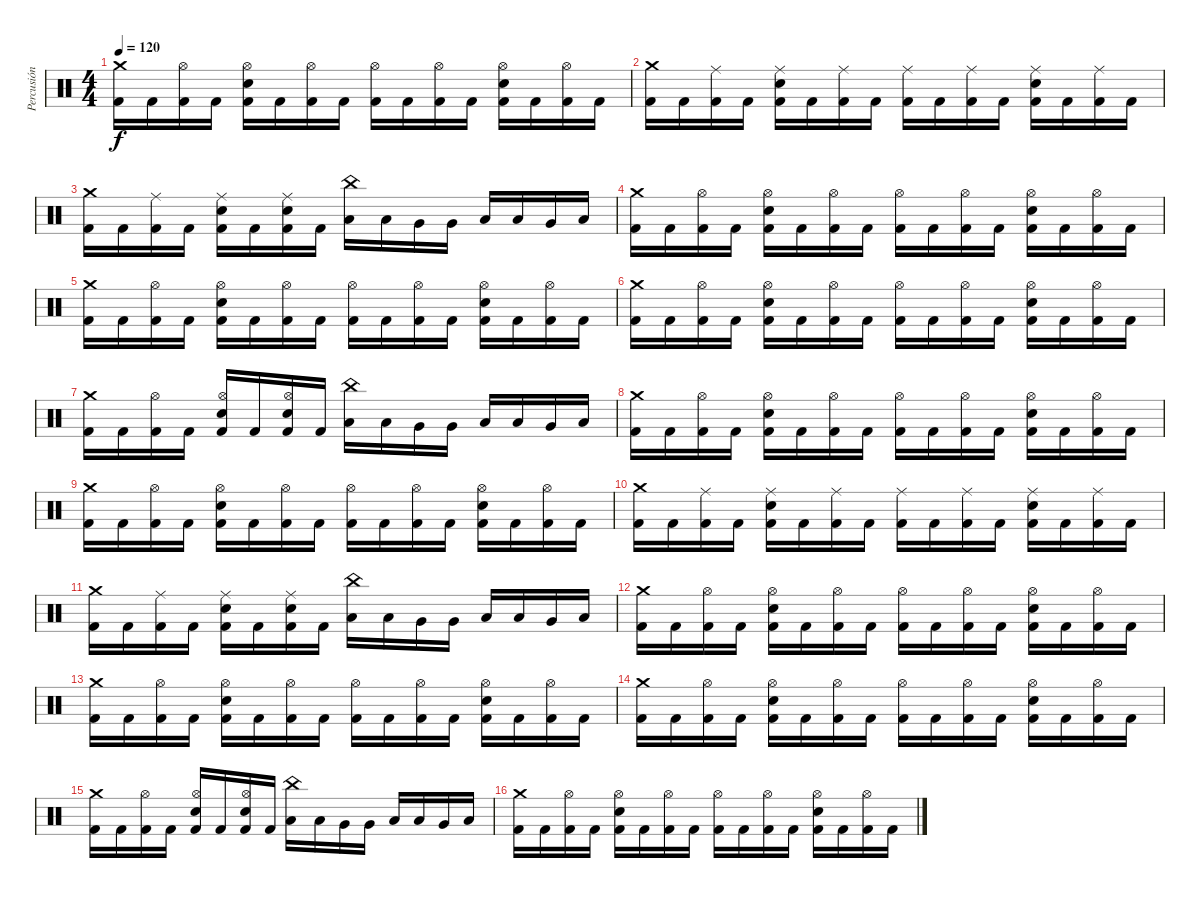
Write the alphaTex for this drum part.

\track ("Percusión" "Percusión") {instrument percussion}
\staff {score}
\articulation defaults
\ts (4 4)
\tempo 120
\clef neutral
\ks c
("Crash medium (hit)" "Kick (hit) 2").16{dy f} "Kick (hit) 2".16 ("Hi-Hat (open)" "Kick (hit) 2").16 "Kick (hit) 2".16 ("Hi-Hat (open)" "Electric Snare (hit)" "Kick (hit) 2").16 "Kick (hit) 2".16 ("Hi-Hat (open)" "Kick (hit) 2").16 "Kick (hit) 2".16 ("Hi-Hat (open)" "Kick (hit) 2").16 "Kick (hit) 2".16 ("Hi-Hat (open)" "Kick (hit) 2").16 "Kick (hit) 2".16 ("Hi-Hat (open)" "Electric Snare (hit)" "Kick (hit) 2").16 "Kick (hit) 2".16 ("Hi-Hat (open)" "Kick (hit) 2").16 "Kick (hit) 2".16 |
("Crash medium (hit)" "Kick (hit) 2").16 "Kick (hit) 2".16 ("Ride (middle)" "Kick (hit) 2").16 "Kick (hit) 2".16 ("Ride (middle)" "Electric Snare (hit)" "Kick (hit) 2").16 "Kick (hit) 2".16 ("Ride (middle)" "Kick (hit) 2").16 "Kick (hit) 2".16 ("Ride (middle)" "Kick (hit) 2").16 "Kick (hit) 2".16 ("Ride (middle)" "Kick (hit) 2").16 "Kick (hit) 2".16 ("Ride (middle)" "Electric Snare (hit)" "Kick (hit) 2").16 "Kick (hit) 2".16 ("Ride (middle)" "Kick (hit) 2").16 "Kick (hit) 2".16 |
("Crash medium (hit)" "Kick (hit) 2").16 "Kick (hit) 2".16 ("Ride (middle)" "Kick (hit) 2").16 "Kick (hit) 2".16 ("Ride (middle)" "Electric Snare (hit)" "Kick (hit) 2").16 "Kick (hit) 2".16 ("Ride (middle)" "Electric Snare (hit)" "Kick (hit) 2").16 "Kick (hit) 2".16 ("China (hit)" "Low Tom (hit)").16 "Low Tom (hit)".16 "Very Low Tom (hit)".16 "Very Low Tom (hit)".16 "Low Floor Tom (hit)".16 "Low Floor Tom (hit)".16 "Very Low Tom (hit)".16 "Low Tom (hit)".16 |
("Crash medium (hit)" "Kick (hit) 2").16 "Kick (hit) 2".16 ("Hi-Hat (open)" "Kick (hit) 2").16 "Kick (hit) 2".16 ("Hi-Hat (open)" "Electric Snare (hit)" "Kick (hit) 2").16 "Kick (hit) 2".16 ("Hi-Hat (open)" "Kick (hit) 2").16 "Kick (hit) 2".16 ("Hi-Hat (open)" "Kick (hit) 2").16 "Kick (hit) 2".16 ("Hi-Hat (open)" "Kick (hit) 2").16 "Kick (hit) 2".16 ("Hi-Hat (open)" "Electric Snare (hit)" "Kick (hit) 2").16 "Kick (hit) 2".16 ("Hi-Hat (open)" "Kick (hit) 2").16 "Kick (hit) 2".16 |
("Crash medium (hit)" "Kick (hit) 2").16 "Kick (hit) 2".16 ("Hi-Hat (open)" "Kick (hit) 2").16 "Kick (hit) 2".16 ("Hi-Hat (open)" "Electric Snare (hit)" "Kick (hit) 2").16 "Kick (hit) 2".16 ("Hi-Hat (open)" "Kick (hit) 2").16 "Kick (hit) 2".16 ("Hi-Hat (open)" "Kick (hit) 2").16 "Kick (hit) 2".16 ("Hi-Hat (open)" "Kick (hit) 2").16 "Kick (hit) 2".16 ("Hi-Hat (open)" "Electric Snare (hit)" "Kick (hit) 2").16 "Kick (hit) 2".16 ("Hi-Hat (open)" "Kick (hit) 2").16 "Kick (hit) 2".16 |
("Crash medium (hit)" "Kick (hit) 2").16 "Kick (hit) 2".16 ("Hi-Hat (open)" "Kick (hit) 2").16 "Kick (hit) 2".16 ("Hi-Hat (open)" "Electric Snare (hit)" "Kick (hit) 2").16 "Kick (hit) 2".16 ("Hi-Hat (open)" "Kick (hit) 2").16 "Kick (hit) 2".16 ("Hi-Hat (open)" "Kick (hit) 2").16 "Kick (hit) 2".16 ("Hi-Hat (open)" "Kick (hit) 2").16 "Kick (hit) 2".16 ("Hi-Hat (open)" "Electric Snare (hit)" "Kick (hit) 2").16 "Kick (hit) 2".16 ("Hi-Hat (open)" "Kick (hit) 2").16 "Kick (hit) 2".16 |
("Crash medium (hit)" "Kick (hit) 2").16 "Kick (hit) 2".16 ("Hi-Hat (open)" "Kick (hit) 2").16 "Kick (hit) 2".16 ("Hi-Hat (open)" "Electric Snare (hit)" "Kick (hit) 2").16 "Kick (hit) 2".16 ("Hi-Hat (open)" "Electric Snare (hit)" "Kick (hit) 2").16 "Kick (hit) 2".16 ("China (hit)" "Low Tom (hit)").16 "Low Tom (hit)".16 "Very Low Tom (hit)".16 "Very Low Tom (hit)".16 "Low Floor Tom (hit)".16 "Low Floor Tom (hit)".16 "Very Low Tom (hit)".16 "Low Tom (hit)".16 |
("Crash medium (hit)" "Kick (hit) 2").16 "Kick (hit) 2".16 ("Hi-Hat (open)" "Kick (hit) 2").16 "Kick (hit) 2".16 ("Hi-Hat (open)" "Electric Snare (hit)" "Kick (hit) 2").16 "Kick (hit) 2".16 ("Hi-Hat (open)" "Kick (hit) 2").16 "Kick (hit) 2".16 ("Hi-Hat (open)" "Kick (hit) 2").16 "Kick (hit) 2".16 ("Hi-Hat (open)" "Kick (hit) 2").16 "Kick (hit) 2".16 ("Hi-Hat (open)" "Electric Snare (hit)" "Kick (hit) 2").16 "Kick (hit) 2".16 ("Hi-Hat (open)" "Kick (hit) 2").16 "Kick (hit) 2".16 |
("Crash medium (hit)" "Kick (hit) 2").16 "Kick (hit) 2".16 ("Hi-Hat (open)" "Kick (hit) 2").16 "Kick (hit) 2".16 ("Hi-Hat (open)" "Electric Snare (hit)" "Kick (hit) 2").16 "Kick (hit) 2".16 ("Hi-Hat (open)" "Kick (hit) 2").16 "Kick (hit) 2".16 ("Hi-Hat (open)" "Kick (hit) 2").16 "Kick (hit) 2".16 ("Hi-Hat (open)" "Kick (hit) 2").16 "Kick (hit) 2".16 ("Hi-Hat (open)" "Electric Snare (hit)" "Kick (hit) 2").16 "Kick (hit) 2".16 ("Hi-Hat (open)" "Kick (hit) 2").16 "Kick (hit) 2".16 |
("Crash medium (hit)" "Kick (hit) 2").16 "Kick (hit) 2".16 ("Ride (middle)" "Kick (hit) 2").16 "Kick (hit) 2".16 ("Ride (middle)" "Electric Snare (hit)" "Kick (hit) 2").16 "Kick (hit) 2".16 ("Ride (middle)" "Kick (hit) 2").16 "Kick (hit) 2".16 ("Ride (middle)" "Kick (hit) 2").16 "Kick (hit) 2".16 ("Ride (middle)" "Kick (hit) 2").16 "Kick (hit) 2".16 ("Ride (middle)" "Electric Snare (hit)" "Kick (hit) 2").16 "Kick (hit) 2".16 ("Ride (middle)" "Kick (hit) 2").16 "Kick (hit) 2".16 |
("Crash medium (hit)" "Kick (hit) 2").16 "Kick (hit) 2".16 ("Ride (middle)" "Kick (hit) 2").16 "Kick (hit) 2".16 ("Ride (middle)" "Electric Snare (hit)" "Kick (hit) 2").16 "Kick (hit) 2".16 ("Ride (middle)" "Electric Snare (hit)" "Kick (hit) 2").16 "Kick (hit) 2".16 ("China (hit)" "Low Tom (hit)").16 "Low Tom (hit)".16 "Very Low Tom (hit)".16 "Very Low Tom (hit)".16 "Low Floor Tom (hit)".16 "Low Floor Tom (hit)".16 "Very Low Tom (hit)".16 "Low Tom (hit)".16 |
("Crash medium (hit)" "Kick (hit) 2").16 "Kick (hit) 2".16 ("Hi-Hat (open)" "Kick (hit) 2").16 "Kick (hit) 2".16 ("Hi-Hat (open)" "Electric Snare (hit)" "Kick (hit) 2").16 "Kick (hit) 2".16 ("Hi-Hat (open)" "Kick (hit) 2").16 "Kick (hit) 2".16 ("Hi-Hat (open)" "Kick (hit) 2").16 "Kick (hit) 2".16 ("Hi-Hat (open)" "Kick (hit) 2").16 "Kick (hit) 2".16 ("Hi-Hat (open)" "Electric Snare (hit)" "Kick (hit) 2").16 "Kick (hit) 2".16 ("Hi-Hat (open)" "Kick (hit) 2").16 "Kick (hit) 2".16 |
("Crash medium (hit)" "Kick (hit) 2").16 "Kick (hit) 2".16 ("Hi-Hat (open)" "Kick (hit) 2").16 "Kick (hit) 2".16 ("Hi-Hat (open)" "Electric Snare (hit)" "Kick (hit) 2").16 "Kick (hit) 2".16 ("Hi-Hat (open)" "Kick (hit) 2").16 "Kick (hit) 2".16 ("Hi-Hat (open)" "Kick (hit) 2").16 "Kick (hit) 2".16 ("Hi-Hat (open)" "Kick (hit) 2").16 "Kick (hit) 2".16 ("Hi-Hat (open)" "Electric Snare (hit)" "Kick (hit) 2").16 "Kick (hit) 2".16 ("Hi-Hat (open)" "Kick (hit) 2").16 "Kick (hit) 2".16 |
("Crash medium (hit)" "Kick (hit) 2").16 "Kick (hit) 2".16 ("Hi-Hat (open)" "Kick (hit) 2").16 "Kick (hit) 2".16 ("Hi-Hat (open)" "Electric Snare (hit)" "Kick (hit) 2").16 "Kick (hit) 2".16 ("Hi-Hat (open)" "Kick (hit) 2").16 "Kick (hit) 2".16 ("Hi-Hat (open)" "Kick (hit) 2").16 "Kick (hit) 2".16 ("Hi-Hat (open)" "Kick (hit) 2").16 "Kick (hit) 2".16 ("Hi-Hat (open)" "Electric Snare (hit)" "Kick (hit) 2").16 "Kick (hit) 2".16 ("Hi-Hat (open)" "Kick (hit) 2").16 "Kick (hit) 2".16 |
("Crash medium (hit)" "Kick (hit) 2").16 "Kick (hit) 2".16 ("Hi-Hat (open)" "Kick (hit) 2").16 "Kick (hit) 2".16 ("Hi-Hat (open)" "Electric Snare (hit)" "Kick (hit) 2").16 "Kick (hit) 2".16 ("Hi-Hat (open)" "Electric Snare (hit)" "Kick (hit) 2").16 "Kick (hit) 2".16 ("China (hit)" "Low Tom (hit)").16 "Low Tom (hit)".16 "Very Low Tom (hit)".16 "Very Low Tom (hit)".16 "Low Floor Tom (hit)".16 "Low Floor Tom (hit)".16 "Very Low Tom (hit)".16 "Low Tom (hit)".16 |
("Crash medium (hit)" "Kick (hit) 2").16 "Kick (hit) 2".16 ("Hi-Hat (open)" "Kick (hit) 2").16 "Kick (hit) 2".16 ("Hi-Hat (open)" "Electric Snare (hit)" "Kick (hit) 2").16 "Kick (hit) 2".16 ("Hi-Hat (open)" "Kick (hit) 2").16 "Kick (hit) 2".16 ("Hi-Hat (open)" "Kick (hit) 2").16 "Kick (hit) 2".16 ("Hi-Hat (open)" "Kick (hit) 2").16 "Kick (hit) 2".16 ("Hi-Hat (open)" "Electric Snare (hit)" "Kick (hit) 2").16 "Kick (hit) 2".16 ("Hi-Hat (open)" "Kick (hit) 2").16 "Kick (hit) 2".16
